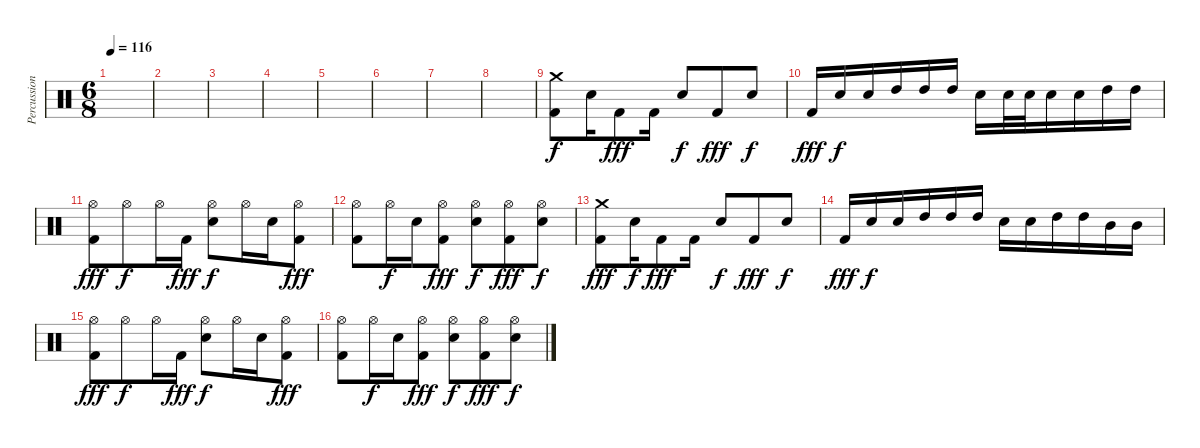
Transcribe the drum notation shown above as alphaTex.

\track ("Percussions" "Percussion") {instrument percussion}
\staff {score}
\articulation defaults
\ts (6 8)
\tempo 116
\clef neutral
\ks c
|
|
|
|
|
|
|
|
("Crash medium (hit)" "Kick (hit) 2").8 "Snare (hit) 2".16{dy f} "Kick (hit) 2".8{dy fff} "Kick (hit) 2".16 "Snare (hit) 2".8{dy f} "Kick (hit) 2".8{dy fff} "Snare (hit) 2".8{dy f} |
"Kick (hit) 2".16{dy fff} "Snare (hit) 2".16{dy f} "Snare (hit) 2".16 "High Tom (hit)".16 "High Tom (hit)".16 "High Tom (hit)".16 "Snare (hit) 2".16 "Snare (hit) 2".32 "Snare (hit) 2".32 "Snare (hit) 2".16 "Snare (hit) 2".16 "High Tom (hit)".16 "High Tom (hit)".16 |
("Hi-Hat (open)" "Kick (hit) 2").8{dy fff} "Hi-Hat (open)".8{dy f} "Hi-Hat (open)".16 "Kick (hit) 2".16{dy fff} ("Hi-Hat (open)" "Snare (hit) 2").8{dy f} "Hi-Hat (open)".16 "Snare (hit) 2".16 ("Hi-Hat (open)" "Kick (hit) 2").8{dy fff} |
("Hi-Hat (open)" "Kick (hit) 2").8 "Hi-Hat (open)".16{dy f} "Snare (hit) 2".16 ("Hi-Hat (open)" "Kick (hit) 2").8{dy fff} ("Hi-Hat (open)" "Snare (hit) 2").8{dy f} ("Hi-Hat (open)" "Kick (hit) 2").8{dy fff} ("Hi-Hat (open)" "Snare (hit) 2").8{dy f} |
("Crash medium (hit)" "Kick (hit) 2").8{dy fff} "Snare (hit) 2".16{dy f} "Kick (hit) 2".8{dy fff} "Kick (hit) 2".16 "Snare (hit) 2".8{dy f} "Kick (hit) 2".8{dy fff} "Snare (hit) 2".8{dy f} |
"Kick (hit) 2".16{dy fff} "Snare (hit) 2".16{dy f} "Snare (hit) 2".16 "High Tom (hit)".16 "High Tom (hit)".16 "High Tom (hit)".16 "Snare (hit) 2".16 "Snare (hit) 2".16 "High Tom (hit)".16 "High Tom (hit)".16 "Mid Tom (hit)".16 "Mid Tom (hit)".16 |
("Hi-Hat (open)" "Kick (hit) 2").8{dy fff} "Hi-Hat (open)".8{dy f} "Hi-Hat (open)".16 "Kick (hit) 2".16{dy fff} ("Hi-Hat (open)" "Snare (hit) 2").8{dy f} "Hi-Hat (open)".16 "Snare (hit) 2".16 ("Hi-Hat (open)" "Kick (hit) 2").8{dy fff} |
("Hi-Hat (open)" "Kick (hit) 2").8 "Hi-Hat (open)".16{dy f} "Snare (hit) 2".16 ("Hi-Hat (open)" "Kick (hit) 2").8{dy fff} ("Hi-Hat (open)" "Snare (hit) 2").8{dy f} ("Hi-Hat (open)" "Kick (hit) 2").8{dy fff} ("Hi-Hat (open)" "Snare (hit) 2").8{dy f}
